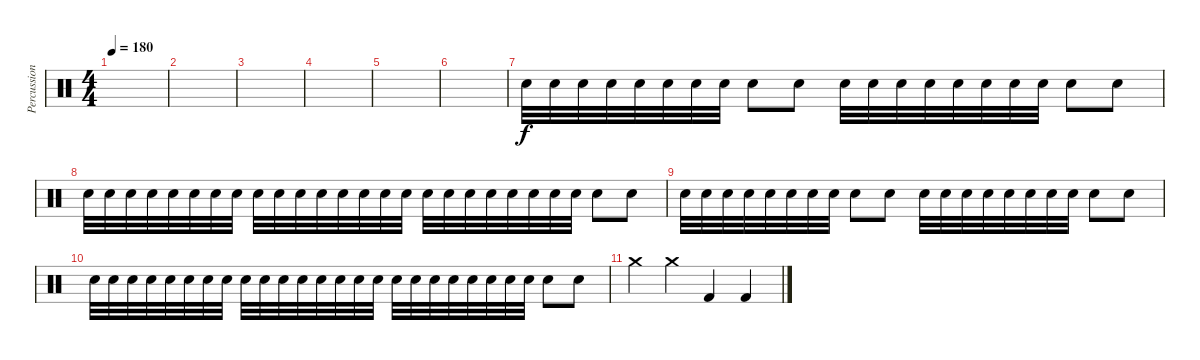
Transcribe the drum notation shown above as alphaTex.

\track ("Percussion" "Percussion") {instrument percussion}
\staff {score}
\articulation defaults
\ts (4 4)
\tempo 180
\clef neutral
\ks c
|
|
|
|
|
|
"Electric Snare (hit)".32 "Electric Snare (hit)".32 "Electric Snare (hit)".32 "Electric Snare (hit)".32 "Electric Snare (hit)".32 "Electric Snare (hit)".32 "Electric Snare (hit)".32 "Electric Snare (hit)".32 "Electric Snare (hit)".8 "Electric Snare (hit)".8 "Electric Snare (hit)".32 "Electric Snare (hit)".32 "Electric Snare (hit)".32 "Electric Snare (hit)".32 "Electric Snare (hit)".32 "Electric Snare (hit)".32 "Electric Snare (hit)".32 "Electric Snare (hit)".32 "Electric Snare (hit)".8 "Electric Snare (hit)".8 |
"Electric Snare (hit)".32 "Electric Snare (hit)".32 "Electric Snare (hit)".32 "Electric Snare (hit)".32 "Electric Snare (hit)".32 "Electric Snare (hit)".32 "Electric Snare (hit)".32 "Electric Snare (hit)".32 "Electric Snare (hit)".32 "Electric Snare (hit)".32 "Electric Snare (hit)".32 "Electric Snare (hit)".32 "Electric Snare (hit)".32 "Electric Snare (hit)".32 "Electric Snare (hit)".32 "Electric Snare (hit)".32 "Electric Snare (hit)".32 "Electric Snare (hit)".32 "Electric Snare (hit)".32 "Electric Snare (hit)".32 "Electric Snare (hit)".32 "Electric Snare (hit)".32 "Electric Snare (hit)".32 "Electric Snare (hit)".32 "Electric Snare (hit)".8 "Electric Snare (hit)".8 |
"Electric Snare (hit)".32 "Electric Snare (hit)".32 "Electric Snare (hit)".32 "Electric Snare (hit)".32 "Electric Snare (hit)".32 "Electric Snare (hit)".32 "Electric Snare (hit)".32 "Electric Snare (hit)".32 "Electric Snare (hit)".8 "Electric Snare (hit)".8 "Electric Snare (hit)".32 "Electric Snare (hit)".32 "Electric Snare (hit)".32 "Electric Snare (hit)".32 "Electric Snare (hit)".32 "Electric Snare (hit)".32 "Electric Snare (hit)".32 "Electric Snare (hit)".32 "Electric Snare (hit)".8 "Electric Snare (hit)".8 |
"Electric Snare (hit)".32 "Electric Snare (hit)".32 "Electric Snare (hit)".32 "Electric Snare (hit)".32 "Electric Snare (hit)".32 "Electric Snare (hit)".32 "Electric Snare (hit)".32 "Electric Snare (hit)".32 "Electric Snare (hit)".32 "Electric Snare (hit)".32 "Electric Snare (hit)".32 "Electric Snare (hit)".32 "Electric Snare (hit)".32 "Electric Snare (hit)".32 "Electric Snare (hit)".32 "Electric Snare (hit)".32 "Electric Snare (hit)".32 "Electric Snare (hit)".32 "Electric Snare (hit)".32 "Electric Snare (hit)".32 "Electric Snare (hit)".32 "Electric Snare (hit)".32 "Electric Snare (hit)".32 "Electric Snare (hit)".32 "Electric Snare (hit)".8 "Electric Snare (hit)".8 |
"Crash medium (hit)".4 "Crash medium (hit)".4 "Kick (hit) 2".4 "Kick (hit) 2".4
